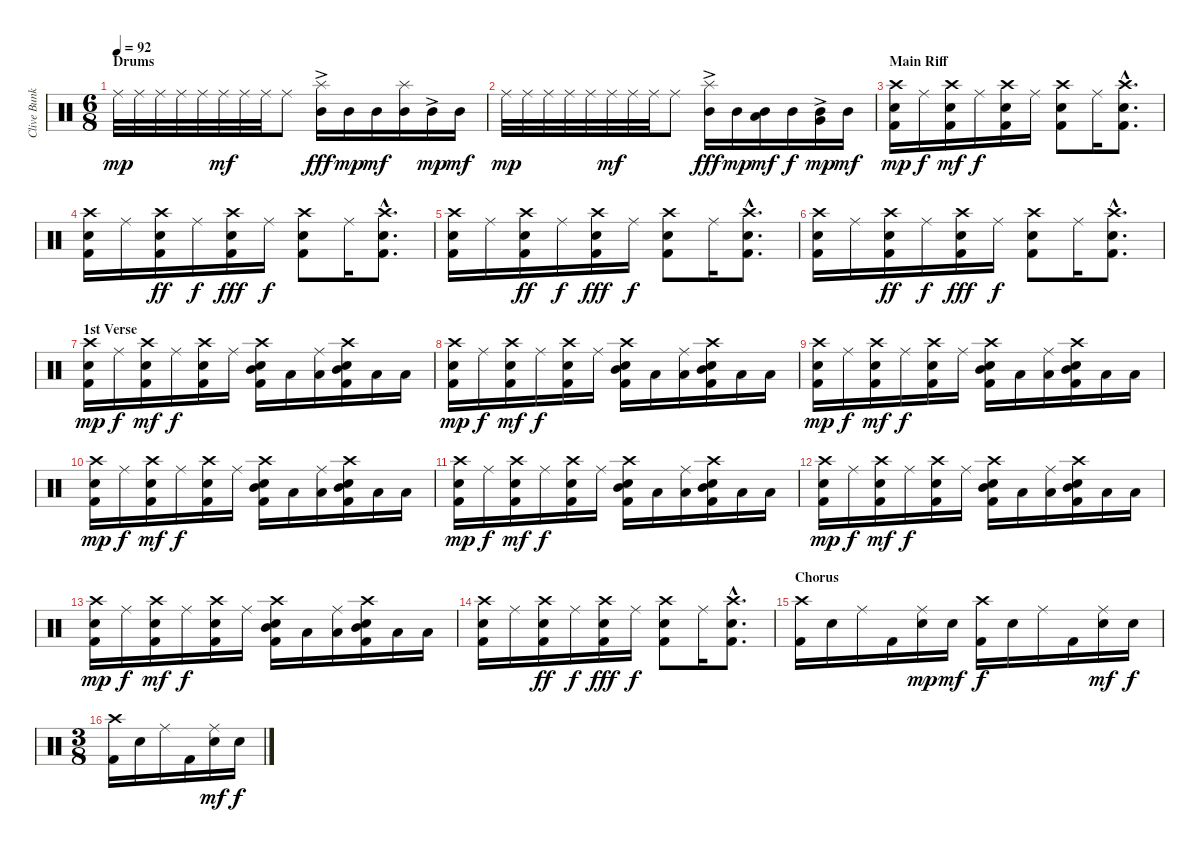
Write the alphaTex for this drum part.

\track ("Clive Bunker (Drums)" "Clive Bunk") {instrument percussion}
\staff {score}
\articulation defaults
\ts (6 8)
\section ("" "Drums")
\tempo 92
\clef neutral
\ks c "Ride (middle)".32{dy mp} "Ride (middle)".32 "Ride (middle)".32 "Ride (middle)".32 "Ride (middle)".32 "Ride (middle)".32{dy mf} "Ride (middle)".32 "Ride (middle)".32 "Ride (middle)".8
("Splash (hit)" "Mid Tom (hit)"{ac}).16{dy fff} "Mid Tom (hit)".16{dy mp} "Mid Tom (hit)".16{dy mf} ("Splash (hit)" "Mid Tom (hit)").16 "Mid Tom (hit)"{ac}.16{dy mp} "Mid Tom (hit)".16{dy mf} |
"Ride (middle)".32{dy mp} "Ride (middle)".32 "Ride (middle)".32 "Ride (middle)".32 "Ride (middle)".32 "Ride (middle)".32{dy mf} "Ride (middle)".32 "Ride (middle)".32 "Ride (middle)".8 ("Splash (hit)" "Mid Tom (hit)"{ac}).16{dy fff} "Mid Tom (hit)".16{dy mp} ("Mid Tom (hit)" "Low Tom (hit)").16{dy mf} "Mid Tom (hit)".16{dy f} ("Mid Tom (hit)"{ac} "Very Low Tom (hit)").16{dy mp} "Mid Tom (hit)".16{dy mf} |
\section ("" "Main Riff")
("Crash high (hit)" "Electric Snare (hit)" "Kick (hit) 2").16{dy mp} "Ride (middle)".16{dy f} ("Crash high (hit)" "Electric Snare (hit)" "Kick (hit) 2").16{dy mf} "Ride (middle)".16{dy f} ("Crash high (hit)" "Electric Snare (hit)" "Kick (hit) 2").16 "Ride (middle)".16 ("Crash high (hit)" "Electric Snare (hit)" "Kick (hit) 2").8 "Ride (middle)".16 ("Crash high (hit)"{hac} "Electric Snare (hit)"{hac} "Kick (hit) 2"{hac}).8{d} |
("Crash high (hit)" "Electric Snare (hit)" "Kick (hit) 2").16 "Ride (middle)".16 ("Crash high (hit)" "Electric Snare (hit)" "Kick (hit) 2").16{dy ff} "Ride (middle)".16{dy f} ("Crash high (hit)" "Electric Snare (hit)" "Kick (hit) 2").16{dy fff} "Ride (middle)".16{dy f} ("Crash high (hit)" "Electric Snare (hit)" "Kick (hit) 2").8 "Ride (middle)".16 ("Crash high (hit)"{hac} "Electric Snare (hit)"{hac} "Kick (hit) 2"{hac}).8{d} |
("Crash high (hit)" "Electric Snare (hit)" "Kick (hit) 2").16 "Ride (middle)".16 ("Crash high (hit)" "Electric Snare (hit)" "Kick (hit) 2").16{dy ff} "Ride (middle)".16{dy f} ("Crash high (hit)" "Electric Snare (hit)" "Kick (hit) 2").16{dy fff} "Ride (middle)".16{dy f} ("Crash high (hit)" "Electric Snare (hit)" "Kick (hit) 2").8 "Ride (middle)".16 ("Crash high (hit)"{hac} "Electric Snare (hit)"{hac} "Kick (hit) 2"{hac}).8{d} |
("Crash high (hit)" "Electric Snare (hit)" "Kick (hit) 2").16 "Ride (middle)".16 ("Crash high (hit)" "Electric Snare (hit)" "Kick (hit) 2").16{dy ff} "Ride (middle)".16{dy f} ("Crash high (hit)" "Electric Snare (hit)" "Kick (hit) 2").16{dy fff} "Ride (middle)".16{dy f} ("Crash high (hit)" "Electric Snare (hit)" "Kick (hit) 2").8 "Ride (middle)".16 ("Crash high (hit)"{hac} "Electric Snare (hit)"{hac} "Kick (hit) 2"{hac}).8{d} |
\section ("" "1st Verse")
("Crash high (hit)" "Electric Snare (hit)" "Kick (hit) 2").16{dy mp} "Ride (middle)".16{dy f} ("Crash high (hit)" "Electric Snare (hit)" "Kick (hit) 2").16{dy mf} "Ride (middle)".16{dy f} ("Crash high (hit)" "Electric Snare (hit)" "Kick (hit) 2").16 "Ride (middle)".16 ("Crash high (hit)" "Electric Snare (hit)" "Mid Tom (hit)" "Kick (hit) 2").16 "Low Tom (hit)".16 ("Ride (middle)" "Low Tom (hit)").16 ("Crash high (hit)" "Electric Snare (hit)" "Mid Tom (hit)" "Kick (hit) 2").16 "Low Tom (hit)".16 "Low Tom (hit)".16 |
("Crash high (hit)" "Electric Snare (hit)" "Kick (hit) 2").16{dy mp} "Ride (middle)".16{dy f} ("Crash high (hit)" "Electric Snare (hit)" "Kick (hit) 2").16{dy mf} "Ride (middle)".16{dy f} ("Crash high (hit)" "Electric Snare (hit)" "Kick (hit) 2").16 "Ride (middle)".16 ("Crash high (hit)" "Electric Snare (hit)" "Mid Tom (hit)" "Kick (hit) 2").16 "Low Tom (hit)".16 ("Ride (middle)" "Low Tom (hit)").16 ("Crash high (hit)" "Electric Snare (hit)" "Mid Tom (hit)" "Kick (hit) 2").16 "Low Tom (hit)".16 "Low Tom (hit)".16 |
("Crash high (hit)" "Electric Snare (hit)" "Kick (hit) 2").16{dy mp} "Ride (middle)".16{dy f} ("Crash high (hit)" "Electric Snare (hit)" "Kick (hit) 2").16{dy mf} "Ride (middle)".16{dy f} ("Crash high (hit)" "Electric Snare (hit)" "Kick (hit) 2").16 "Ride (middle)".16 ("Crash high (hit)" "Electric Snare (hit)" "Mid Tom (hit)" "Kick (hit) 2").16 "Low Tom (hit)".16 ("Ride (middle)" "Low Tom (hit)").16 ("Crash high (hit)" "Electric Snare (hit)" "Mid Tom (hit)" "Kick (hit) 2").16 "Low Tom (hit)".16 "Low Tom (hit)".16 |
("Crash high (hit)" "Electric Snare (hit)" "Kick (hit) 2").16{dy mp} "Ride (middle)".16{dy f} ("Crash high (hit)" "Electric Snare (hit)" "Kick (hit) 2").16{dy mf} "Ride (middle)".16{dy f} ("Crash high (hit)" "Electric Snare (hit)" "Kick (hit) 2").16 "Ride (middle)".16 ("Crash high (hit)" "Electric Snare (hit)" "Mid Tom (hit)" "Kick (hit) 2").16 "Low Tom (hit)".16 ("Ride (middle)" "Low Tom (hit)").16 ("Crash high (hit)" "Electric Snare (hit)" "Mid Tom (hit)" "Kick (hit) 2").16 "Low Tom (hit)".16 "Low Tom (hit)".16 |
("Crash high (hit)" "Electric Snare (hit)" "Kick (hit) 2").16{dy mp} "Ride (middle)".16{dy f} ("Crash high (hit)" "Electric Snare (hit)" "Kick (hit) 2").16{dy mf} "Ride (middle)".16{dy f} ("Crash high (hit)" "Electric Snare (hit)" "Kick (hit) 2").16 "Ride (middle)".16 ("Crash high (hit)" "Electric Snare (hit)" "Mid Tom (hit)" "Kick (hit) 2").16 "Low Tom (hit)".16 ("Ride (middle)" "Low Tom (hit)").16 ("Crash high (hit)" "Electric Snare (hit)" "Mid Tom (hit)" "Kick (hit) 2").16 "Low Tom (hit)".16 "Low Tom (hit)".16 |
("Crash high (hit)" "Electric Snare (hit)" "Kick (hit) 2").16{dy mp} "Ride (middle)".16{dy f} ("Crash high (hit)" "Electric Snare (hit)" "Kick (hit) 2").16{dy mf} "Ride (middle)".16{dy f} ("Crash high (hit)" "Electric Snare (hit)" "Kick (hit) 2").16 "Ride (middle)".16 ("Crash high (hit)" "Electric Snare (hit)" "Mid Tom (hit)" "Kick (hit) 2").16 "Low Tom (hit)".16 ("Ride (middle)" "Low Tom (hit)").16 ("Crash high (hit)" "Electric Snare (hit)" "Mid Tom (hit)" "Kick (hit) 2").16 "Low Tom (hit)".16 "Low Tom (hit)".16 |
("Crash high (hit)" "Electric Snare (hit)" "Kick (hit) 2").16{dy mp} "Ride (middle)".16{dy f} ("Crash high (hit)" "Electric Snare (hit)" "Kick (hit) 2").16{dy mf} "Ride (middle)".16{dy f} ("Crash high (hit)" "Electric Snare (hit)" "Kick (hit) 2").16 "Ride (middle)".16 ("Crash high (hit)" "Electric Snare (hit)" "Mid Tom (hit)" "Kick (hit) 2").16 "Low Tom (hit)".16 ("Ride (middle)" "Low Tom (hit)").16 ("Crash high (hit)" "Electric Snare (hit)" "Mid Tom (hit)" "Kick (hit) 2").16 "Low Tom (hit)".16 "Low Tom (hit)".16 |
("Crash high (hit)" "Electric Snare (hit)" "Kick (hit) 2").16 "Ride (middle)".16 ("Crash high (hit)" "Electric Snare (hit)" "Kick (hit) 2").16{dy ff} "Ride (middle)".16{dy f} ("Crash high (hit)" "Electric Snare (hit)" "Kick (hit) 2").16{dy fff} "Ride (middle)".16{dy f} ("Crash high (hit)" "Electric Snare (hit)" "Kick (hit) 2").8 "Ride (middle)".16 ("Crash high (hit)"{hac} "Electric Snare (hit)"{hac} "Kick (hit) 2"{hac}).8{d} |
\section ("" "Chorus")
("Crash high (hit)" "Kick (hit) 2").16 "Electric Snare (hit)".16 "Ride (middle)".16 "Kick (hit) 2".16 ("Ride (middle)" "Electric Snare (hit)").16{dy mp} "Electric Snare (hit)".16{dy mf} ("Crash high (hit)" "Kick (hit) 2").16{dy f} "Electric Snare (hit)".16 "Ride (middle)".16 "Kick (hit) 2".16 ("Ride (middle)" "Electric Snare (hit)").16{dy mf} "Electric Snare (hit)".16{dy f} |
\ts (3 8)
("Crash high (hit)" "Kick (hit) 2").16 "Electric Snare (hit)".16 "Ride (middle)".16 "Kick (hit) 2".16 ("Ride (middle)" "Electric Snare (hit)").16{dy mf} "Electric Snare (hit)".16{dy f}
